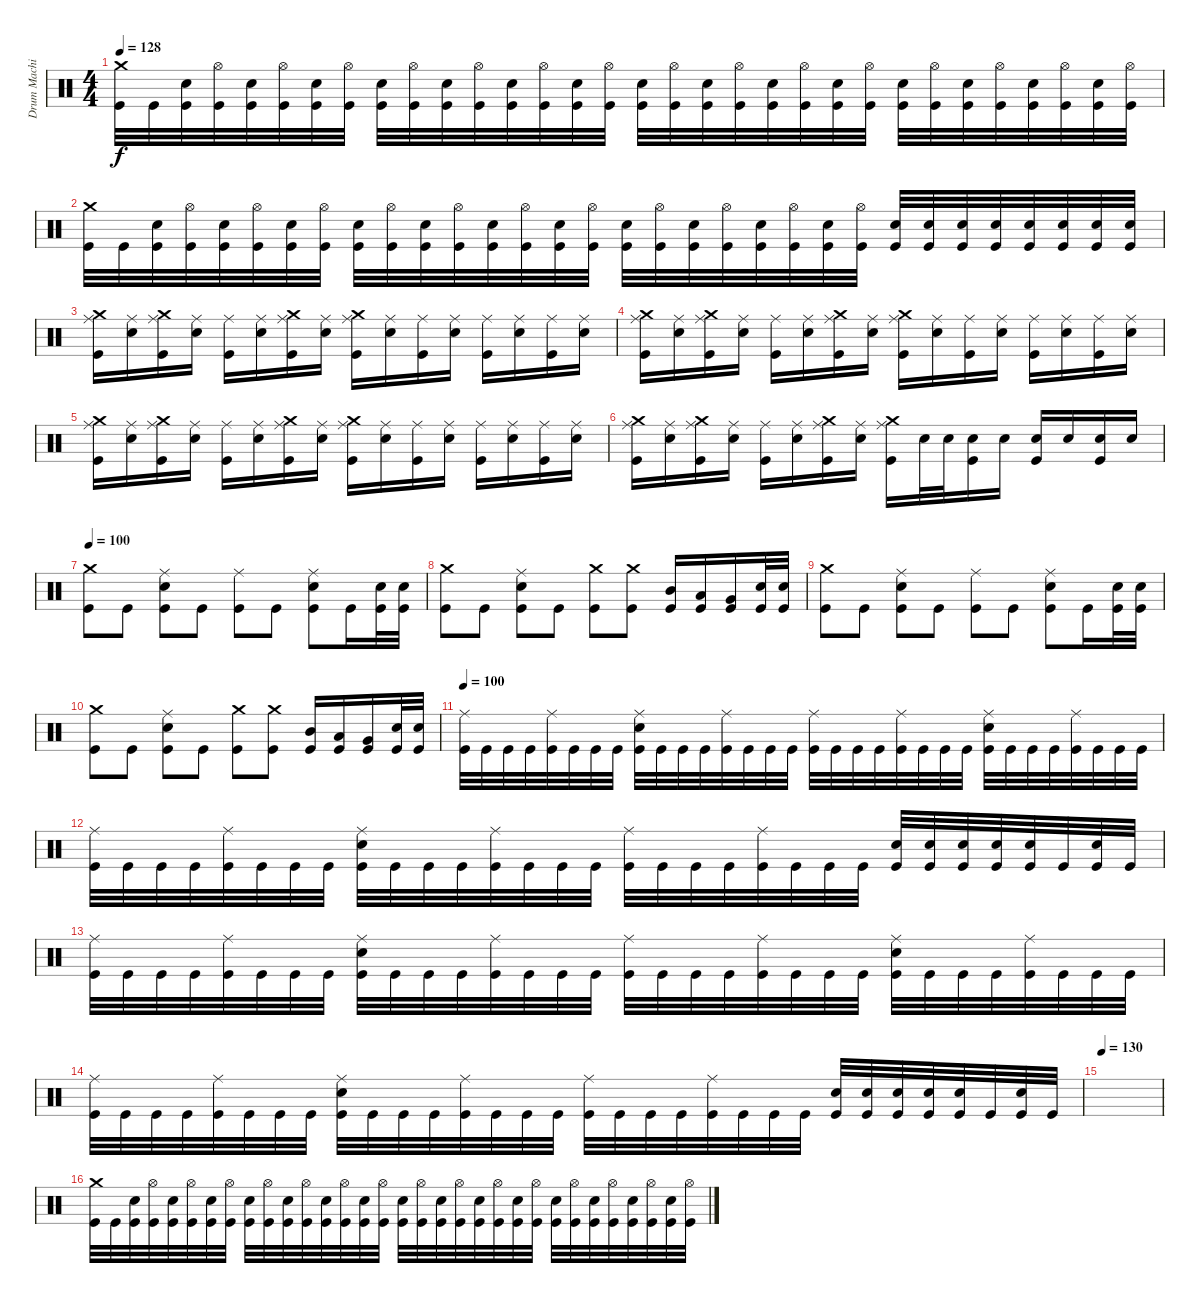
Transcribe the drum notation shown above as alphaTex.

\track ("Drum Machine" "Drum Machi") {instrument percussion}
\staff {score}
\articulation defaults
\ts (4 4)
\tempo 128
\clef neutral
\ks c
("Crash medium (hit)" "Kick (hit)").32{dy f} "Kick (hit)".32 ("Electric Snare (hit)" "Kick (hit)").32 ("Hi-Hat (open)" "Kick (hit)").32 ("Electric Snare (hit)" "Kick (hit)").32 ("Hi-Hat (open)" "Kick (hit)").32 ("Electric Snare (hit)" "Kick (hit)").32 ("Hi-Hat (open)" "Kick (hit)").32 ("Electric Snare (hit)" "Kick (hit)").32 ("Hi-Hat (open)" "Kick (hit)").32 ("Electric Snare (hit)" "Kick (hit)").32 ("Hi-Hat (open)" "Kick (hit)").32 ("Electric Snare (hit)" "Kick (hit)").32 ("Hi-Hat (open)" "Kick (hit)").32 ("Electric Snare (hit)" "Kick (hit)").32 ("Hi-Hat (open)" "Kick (hit)").32 ("Electric Snare (hit)" "Kick (hit)").32 ("Hi-Hat (open)" "Kick (hit)").32 ("Electric Snare (hit)" "Kick (hit)").32 ("Hi-Hat (open)" "Kick (hit)").32 ("Electric Snare (hit)" "Kick (hit)").32 ("Hi-Hat (open)" "Kick (hit)").32 ("Electric Snare (hit)" "Kick (hit)").32 ("Hi-Hat (open)" "Kick (hit)").32 ("Electric Snare (hit)" "Kick (hit)").32 ("Hi-Hat (open)" "Kick (hit)").32 ("Electric Snare (hit)" "Kick (hit)").32 ("Hi-Hat (open)" "Kick (hit)").32 ("Electric Snare (hit)" "Kick (hit)").32 ("Hi-Hat (open)" "Kick (hit)").32 ("Electric Snare (hit)" "Kick (hit)").32 ("Hi-Hat (open)" "Kick (hit)").32 |
("Crash medium (hit)" "Kick (hit)").32 "Kick (hit)".32 ("Electric Snare (hit)" "Kick (hit)").32 ("Hi-Hat (open)" "Kick (hit)").32 ("Electric Snare (hit)" "Kick (hit)").32 ("Hi-Hat (open)" "Kick (hit)").32 ("Electric Snare (hit)" "Kick (hit)").32 ("Hi-Hat (open)" "Kick (hit)").32 ("Electric Snare (hit)" "Kick (hit)").32 ("Hi-Hat (open)" "Kick (hit)").32 ("Electric Snare (hit)" "Kick (hit)").32 ("Hi-Hat (open)" "Kick (hit)").32 ("Electric Snare (hit)" "Kick (hit)").32 ("Hi-Hat (open)" "Kick (hit)").32 ("Electric Snare (hit)" "Kick (hit)").32 ("Hi-Hat (open)" "Kick (hit)").32 ("Electric Snare (hit)" "Kick (hit)").32 ("Hi-Hat (open)" "Kick (hit)").32 ("Electric Snare (hit)" "Kick (hit)").32 ("Hi-Hat (open)" "Kick (hit)").32 ("Electric Snare (hit)" "Kick (hit)").32 ("Hi-Hat (open)" "Kick (hit)").32 ("Electric Snare (hit)" "Kick (hit)").32 ("Hi-Hat (open)" "Kick (hit)").32 ("Electric Snare (hit)" "Kick (hit)").32 ("Electric Snare (hit)" "Kick (hit)").32 ("Electric Snare (hit)" "Kick (hit)").32 ("Electric Snare (hit)" "Kick (hit)").32 ("Electric Snare (hit)" "Kick (hit)").32 ("Electric Snare (hit)" "Kick (hit)").32 ("Electric Snare (hit)" "Kick (hit)").32 ("Electric Snare (hit)" "Kick (hit)").32 |
("Ride (middle)" "Crash medium (hit)" "Kick (hit)").16 ("Ride (middle)" "Electric Snare (hit)").16 ("Ride (middle)" "Crash medium (hit)" "Kick (hit)").16 ("Ride (middle)" "Electric Snare (hit)").16 ("Ride (middle)" "Kick (hit)").16 ("Ride (middle)" "Electric Snare (hit)").16 ("Ride (middle)" "Crash medium (hit)" "Kick (hit)").16 ("Ride (middle)" "Electric Snare (hit)").16 ("Ride (middle)" "Crash medium (hit)" "Kick (hit)").16 ("Ride (middle)" "Electric Snare (hit)").16 ("Ride (middle)" "Kick (hit)").16 ("Ride (middle)" "Electric Snare (hit)").16 ("Ride (middle)" "Kick (hit)").16 ("Ride (middle)" "Electric Snare (hit)").16 ("Ride (middle)" "Kick (hit)").16 ("Ride (middle)" "Electric Snare (hit)").16 |
("Ride (middle)" "Crash medium (hit)" "Kick (hit)").16 ("Ride (middle)" "Electric Snare (hit)").16 ("Ride (middle)" "Crash medium (hit)" "Kick (hit)").16 ("Ride (middle)" "Electric Snare (hit)").16 ("Ride (middle)" "Kick (hit)").16 ("Ride (middle)" "Electric Snare (hit)").16 ("Ride (middle)" "Crash medium (hit)" "Kick (hit)").16 ("Ride (middle)" "Electric Snare (hit)").16 ("Ride (middle)" "Crash medium (hit)" "Kick (hit)").16 ("Ride (middle)" "Electric Snare (hit)").16 ("Ride (middle)" "Kick (hit)").16 ("Ride (middle)" "Electric Snare (hit)").16 ("Ride (middle)" "Kick (hit)").16 ("Ride (middle)" "Electric Snare (hit)").16 ("Ride (middle)" "Kick (hit)").16 ("Ride (middle)" "Electric Snare (hit)").16 |
("Ride (middle)" "Crash medium (hit)" "Kick (hit)").16 ("Ride (middle)" "Electric Snare (hit)").16 ("Ride (middle)" "Crash medium (hit)" "Kick (hit)").16 ("Ride (middle)" "Electric Snare (hit)").16 ("Ride (middle)" "Kick (hit)").16 ("Ride (middle)" "Electric Snare (hit)").16 ("Ride (middle)" "Crash medium (hit)" "Kick (hit)").16 ("Ride (middle)" "Electric Snare (hit)").16 ("Ride (middle)" "Crash medium (hit)" "Kick (hit)").16 ("Ride (middle)" "Electric Snare (hit)").16 ("Ride (middle)" "Kick (hit)").16 ("Ride (middle)" "Electric Snare (hit)").16 ("Ride (middle)" "Kick (hit)").16 ("Ride (middle)" "Electric Snare (hit)").16 ("Ride (middle)" "Kick (hit)").16 ("Ride (middle)" "Electric Snare (hit)").16 |
("Ride (middle)" "Crash medium (hit)" "Kick (hit)").16 ("Ride (middle)" "Electric Snare (hit)").16 ("Ride (middle)" "Crash medium (hit)" "Kick (hit)").16 ("Ride (middle)" "Electric Snare (hit)").16 ("Ride (middle)" "Kick (hit)").16 ("Ride (middle)" "Electric Snare (hit)").16 ("Ride (middle)" "Crash medium (hit)" "Kick (hit)").16 ("Ride (middle)" "Electric Snare (hit)").16 ("Ride (middle)" "Crash medium (hit)" "Kick (hit)").16 "Electric Snare (hit)".32 "Electric Snare (hit)".32 ("Electric Snare (hit)" "Kick (hit)").16 "Electric Snare (hit)".16 ("Electric Snare (hit)" "Kick (hit)").16 "Electric Snare (hit)".16 ("Electric Snare (hit)" "Kick (hit)").16 "Electric Snare (hit)".16 |
\tempo 100
("Crash medium (hit)" "Kick (hit)").8 "Kick (hit)".8 ("Ride (middle)" "Electric Snare (hit)" "Kick (hit)").8 "Kick (hit)".8 ("Ride (middle)" "Kick (hit)").8 "Kick (hit)".8 ("Ride (middle)" "Electric Snare (hit)" "Kick (hit)").8 "Kick (hit)".16 ("Electric Snare (hit)" "Kick (hit)").32 ("Electric Snare (hit)" "Kick (hit)").32 |
("Crash medium (hit)" "Kick (hit)").8 "Kick (hit)".8 ("Ride (middle)" "Electric Snare (hit)" "Kick (hit)").8 "Kick (hit)".8 ("Crash medium (hit)" "Kick (hit)").8 ("Crash medium (hit)" "Kick (hit)").8 ("Mid Tom (hit)" "Kick (hit)").16 ("Low Tom (hit)" "Kick (hit)").16 ("Very Low Tom (hit)" "Kick (hit)").16 ("Electric Snare (hit)" "Kick (hit)").32 ("Electric Snare (hit)" "Kick (hit)").32 |
("Crash medium (hit)" "Kick (hit)").8 "Kick (hit)".8 ("Ride (middle)" "Electric Snare (hit)" "Kick (hit)").8 "Kick (hit)".8 ("Ride (middle)" "Kick (hit)").8 "Kick (hit)".8 ("Ride (middle)" "Electric Snare (hit)" "Kick (hit)").8 "Kick (hit)".16 ("Electric Snare (hit)" "Kick (hit)").32 ("Electric Snare (hit)" "Kick (hit)").32 |
("Crash medium (hit)" "Kick (hit)").8 "Kick (hit)".8 ("Ride (middle)" "Electric Snare (hit)" "Kick (hit)").8 "Kick (hit)".8 ("Crash medium (hit)" "Kick (hit)").8 ("Crash medium (hit)" "Kick (hit)").8 ("Mid Tom (hit)" "Kick (hit)").16 ("Low Tom (hit)" "Kick (hit)").16 ("Very Low Tom (hit)" "Kick (hit)").16 ("Electric Snare (hit)" "Kick (hit)").32 ("Electric Snare (hit)" "Kick (hit)").32 |
\tempo 100
("Ride (middle)" "Kick (hit)").32 "Kick (hit)".32 "Kick (hit)".32 "Kick (hit)".32 ("Ride (middle)" "Kick (hit)").32 "Kick (hit)".32 "Kick (hit)".32 "Kick (hit)".32 ("Ride (middle)" "Electric Snare (hit)" "Kick (hit)").32 "Kick (hit)".32 "Kick (hit)".32 "Kick (hit)".32 ("Ride (middle)" "Kick (hit)").32 "Kick (hit)".32 "Kick (hit)".32 "Kick (hit)".32 ("Ride (middle)" "Kick (hit)").32 "Kick (hit)".32 "Kick (hit)".32 "Kick (hit)".32 ("Ride (middle)" "Kick (hit)").32 "Kick (hit)".32 "Kick (hit)".32 "Kick (hit)".32 ("Ride (middle)" "Electric Snare (hit)" "Kick (hit)").32 "Kick (hit)".32 "Kick (hit)".32 "Kick (hit)".32 ("Ride (middle)" "Kick (hit)").32 "Kick (hit)".32 "Kick (hit)".32 "Kick (hit)".32 |
("Ride (middle)" "Kick (hit)").32 "Kick (hit)".32 "Kick (hit)".32 "Kick (hit)".32 ("Ride (middle)" "Kick (hit)").32 "Kick (hit)".32 "Kick (hit)".32 "Kick (hit)".32 ("Ride (middle)" "Electric Snare (hit)" "Kick (hit)").32 "Kick (hit)".32 "Kick (hit)".32 "Kick (hit)".32 ("Ride (middle)" "Kick (hit)").32 "Kick (hit)".32 "Kick (hit)".32 "Kick (hit)".32 ("Ride (middle)" "Kick (hit)").32 "Kick (hit)".32 "Kick (hit)".32 "Kick (hit)".32 ("Ride (middle)" "Kick (hit)").32 "Kick (hit)".32 "Kick (hit)".32 "Kick (hit)".32 ("Electric Snare (hit)" "Kick (hit)").32 ("Electric Snare (hit)" "Kick (hit)").32 ("Electric Snare (hit)" "Kick (hit)").32 ("Electric Snare (hit)" "Kick (hit)").32 ("Electric Snare (hit)" "Kick (hit)").32 "Kick (hit)".32 ("Electric Snare (hit)" "Kick (hit)").32 "Kick (hit)".32 |
("Ride (middle)" "Kick (hit)").32 "Kick (hit)".32 "Kick (hit)".32 "Kick (hit)".32 ("Ride (middle)" "Kick (hit)").32 "Kick (hit)".32 "Kick (hit)".32 "Kick (hit)".32 ("Ride (middle)" "Electric Snare (hit)" "Kick (hit)").32 "Kick (hit)".32 "Kick (hit)".32 "Kick (hit)".32 ("Ride (middle)" "Kick (hit)").32 "Kick (hit)".32 "Kick (hit)".32 "Kick (hit)".32 ("Ride (middle)" "Kick (hit)").32 "Kick (hit)".32 "Kick (hit)".32 "Kick (hit)".32 ("Ride (middle)" "Kick (hit)").32 "Kick (hit)".32 "Kick (hit)".32 "Kick (hit)".32 ("Ride (middle)" "Electric Snare (hit)" "Kick (hit)").32 "Kick (hit)".32 "Kick (hit)".32 "Kick (hit)".32 ("Ride (middle)" "Kick (hit)").32 "Kick (hit)".32 "Kick (hit)".32 "Kick (hit)".32 |
("Ride (middle)" "Kick (hit)").32 "Kick (hit)".32 "Kick (hit)".32 "Kick (hit)".32 ("Ride (middle)" "Kick (hit)").32 "Kick (hit)".32 "Kick (hit)".32 "Kick (hit)".32 ("Ride (middle)" "Electric Snare (hit)" "Kick (hit)").32 "Kick (hit)".32 "Kick (hit)".32 "Kick (hit)".32 ("Ride (middle)" "Kick (hit)").32 "Kick (hit)".32 "Kick (hit)".32 "Kick (hit)".32 ("Ride (middle)" "Kick (hit)").32 "Kick (hit)".32 "Kick (hit)".32 "Kick (hit)".32 ("Ride (middle)" "Kick (hit)").32 "Kick (hit)".32 "Kick (hit)".32 "Kick (hit)".32 ("Electric Snare (hit)" "Kick (hit)").32 ("Electric Snare (hit)" "Kick (hit)").32 ("Electric Snare (hit)" "Kick (hit)").32 ("Electric Snare (hit)" "Kick (hit)").32 ("Electric Snare (hit)" "Kick (hit)").32 "Kick (hit)".32 ("Electric Snare (hit)" "Kick (hit)").32 "Kick (hit)".32 |
\tempo 130
|
("Crash medium (hit)" "Kick (hit)").32 "Kick (hit)".32 ("Electric Snare (hit)" "Kick (hit)").32 ("Hi-Hat (open)" "Kick (hit)").32 ("Electric Snare (hit)" "Kick (hit)").32 ("Hi-Hat (open)" "Kick (hit)").32 ("Electric Snare (hit)" "Kick (hit)").32 ("Hi-Hat (open)" "Kick (hit)").32 ("Electric Snare (hit)" "Kick (hit)").32 ("Hi-Hat (open)" "Kick (hit)").32 ("Electric Snare (hit)" "Kick (hit)").32 ("Hi-Hat (open)" "Kick (hit)").32 ("Electric Snare (hit)" "Kick (hit)").32 ("Hi-Hat (open)" "Kick (hit)").32 ("Electric Snare (hit)" "Kick (hit)").32 ("Hi-Hat (open)" "Kick (hit)").32 ("Electric Snare (hit)" "Kick (hit)").32 ("Hi-Hat (open)" "Kick (hit)").32 ("Electric Snare (hit)" "Kick (hit)").32 ("Hi-Hat (open)" "Kick (hit)").32 ("Electric Snare (hit)" "Kick (hit)").32 ("Hi-Hat (open)" "Kick (hit)").32 ("Electric Snare (hit)" "Kick (hit)").32 ("Hi-Hat (open)" "Kick (hit)").32 ("Electric Snare (hit)" "Kick (hit)").32 ("Hi-Hat (open)" "Kick (hit)").32 ("Electric Snare (hit)" "Kick (hit)").32 ("Hi-Hat (open)" "Kick (hit)").32 ("Electric Snare (hit)" "Kick (hit)").32 ("Hi-Hat (open)" "Kick (hit)").32 ("Electric Snare (hit)" "Kick (hit)").32 ("Hi-Hat (open)" "Kick (hit)").32
